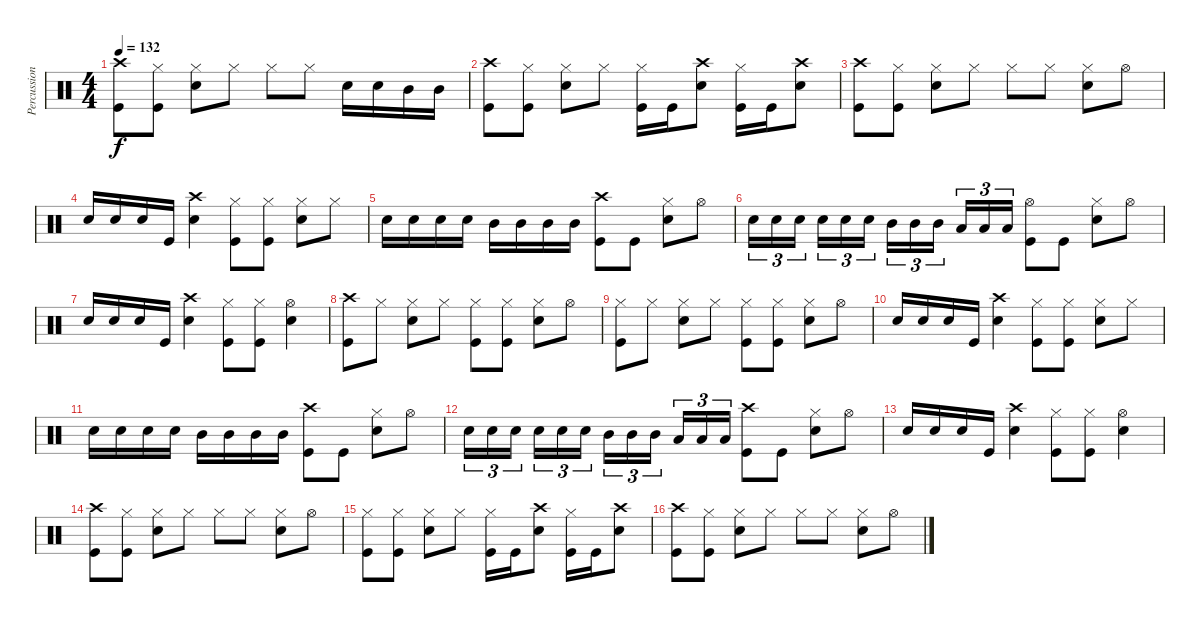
\track ("Percussion" "Percussion") {instrument percussion}
\staff {score}
\articulation defaults
\ts (4 4)
\tempo 132
\clef neutral
\ks c
("Crash high (hit)" "Kick (hit)").8{dy f} ("Hi-Hat (closed)" "Kick (hit)").8 ("Hi-Hat (closed)" "Electric Snare (hit)").8 "Hi-Hat (closed)".8 "Hi-Hat (closed)".8 "Hi-Hat (closed)".8 "Electric Snare (hit)".16 "Electric Snare (hit)".16 "Mid Tom (hit)".16 "Mid Tom (hit)".16 |
("Crash high (hit)" "Kick (hit)").8 ("Hi-Hat (closed)" "Kick (hit)").8 ("Hi-Hat (closed)" "Electric Snare (hit)").8 "Hi-Hat (closed)".8 ("Hi-Hat (closed)" "Kick (hit)").16 "Kick (hit)".16 ("Crash high (hit)" "Electric Snare (hit)").8 ("Hi-Hat (closed)" "Kick (hit)").16 "Kick (hit)".16 ("Crash high (hit)" "Electric Snare (hit)").8 |
("Crash high (hit)" "Kick (hit)").8 ("Hi-Hat (closed)" "Kick (hit)").8 ("Hi-Hat (closed)" "Electric Snare (hit)").8 "Hi-Hat (closed)".8 "Hi-Hat (closed)".8 "Hi-Hat (closed)".8 ("Hi-Hat (closed)" "Electric Snare (hit)").8 "Hi-Hat (open)".8 |
"Electric Snare (hit)".16 "Electric Snare (hit)".16 "Electric Snare (hit)".16 "Kick (hit)".16 ("Crash high (hit)" "Electric Snare (hit)").4 ("Hi-Hat (closed)" "Kick (hit)").8 ("Hi-Hat (closed)" "Kick (hit)").8 ("Hi-Hat (closed)" "Electric Snare (hit)").8 "Hi-Hat (closed)".8 |
"Electric Snare (hit)".16 "Electric Snare (hit)".16 "Electric Snare (hit)".16 "Electric Snare (hit)".16 "Mid Tom (hit)".16 "Mid Tom (hit)".16 "Mid Tom (hit)".16 "Mid Tom (hit)".16 ("Crash high (hit)" "Kick (hit)").8 "Kick (hit)".8 ("Hi-Hat (closed)" "Electric Snare (hit)").8 "Hi-Hat (open)".8 |
"Electric Snare (hit)".16{tu (3 2)} "Electric Snare (hit)".16{tu (3 2)} "Electric Snare (hit)".16{tu (3 2)} "Electric Snare (hit)".16{tu (3 2)} "Electric Snare (hit)".16{tu (3 2)} "Electric Snare (hit)".16{tu (3 2)} "Mid Tom (hit)".16{tu (3 2)} "Mid Tom (hit)".16{tu (3 2)} "Mid Tom (hit)".16{tu (3 2)} "Low Tom (hit)".16{tu (3 2)} "Low Tom (hit)".16{tu (3 2)} "Low Tom (hit)".16{tu (3 2)} ("Hi-Hat (open)" "Kick (hit)").8 "Kick (hit)".8 ("Hi-Hat (closed)" "Electric Snare (hit)").8 "Hi-Hat (open)".8 |
"Electric Snare (hit)".16 "Electric Snare (hit)".16 "Electric Snare (hit)".16 "Kick (hit)".16 ("Crash high (hit)" "Electric Snare (hit)").4 ("Hi-Hat (closed)" "Kick (hit)").8 ("Hi-Hat (closed)" "Kick (hit)").8 ("Hi-Hat (open)" "Electric Snare (hit)").4 |
("Crash high (hit)" "Kick (hit)").8 "Hi-Hat (closed)".8 ("Hi-Hat (closed)" "Electric Snare (hit)").8 "Hi-Hat (closed)".8 ("Hi-Hat (closed)" "Kick (hit)").8 ("Hi-Hat (closed)" "Kick (hit)").8 ("Hi-Hat (closed)" "Electric Snare (hit)").8 "Hi-Hat (open)".8 |
("Hi-Hat (closed)" "Kick (hit)").8 "Hi-Hat (closed)".8 ("Hi-Hat (closed)" "Electric Snare (hit)").8 "Hi-Hat (closed)".8 ("Hi-Hat (closed)" "Kick (hit)").8 ("Hi-Hat (closed)" "Kick (hit)").8 ("Hi-Hat (closed)" "Electric Snare (hit)").8 "Hi-Hat (open)".8 |
"Electric Snare (hit)".16 "Electric Snare (hit)".16 "Electric Snare (hit)".16 "Kick (hit)".16 ("Crash high (hit)" "Electric Snare (hit)").4 ("Hi-Hat (closed)" "Kick (hit)").8 ("Hi-Hat (closed)" "Kick (hit)").8 ("Hi-Hat (closed)" "Electric Snare (hit)").8 "Hi-Hat (closed)".8 |
"Electric Snare (hit)".16 "Electric Snare (hit)".16 "Electric Snare (hit)".16 "Electric Snare (hit)".16 "Mid Tom (hit)".16 "Mid Tom (hit)".16 "Mid Tom (hit)".16 "Mid Tom (hit)".16 ("Crash high (hit)" "Kick (hit)").8 "Kick (hit)".8 ("Hi-Hat (closed)" "Electric Snare (hit)").8 "Hi-Hat (open)".8 |
"Electric Snare (hit)".16{tu (3 2)} "Electric Snare (hit)".16{tu (3 2)} "Electric Snare (hit)".16{tu (3 2)} "Electric Snare (hit)".16{tu (3 2)} "Electric Snare (hit)".16{tu (3 2)} "Electric Snare (hit)".16{tu (3 2)} "Mid Tom (hit)".16{tu (3 2)} "Mid Tom (hit)".16{tu (3 2)} "Mid Tom (hit)".16{tu (3 2)} "Low Tom (hit)".16{tu (3 2)} "Low Tom (hit)".16{tu (3 2)} "Low Tom (hit)".16{tu (3 2)} ("Crash high (hit)" "Kick (hit)").8 "Kick (hit)".8 ("Hi-Hat (closed)" "Electric Snare (hit)").8 "Hi-Hat (open)".8 |
"Electric Snare (hit)".16 "Electric Snare (hit)".16 "Electric Snare (hit)".16 "Kick (hit)".16 ("Crash high (hit)" "Electric Snare (hit)").4 ("Hi-Hat (closed)" "Kick (hit)").8 ("Hi-Hat (closed)" "Kick (hit)").8 ("Hi-Hat (open)" "Electric Snare (hit)").4 |
("Crash high (hit)" "Kick (hit)").8 ("Hi-Hat (closed)" "Kick (hit)").8 ("Hi-Hat (closed)" "Electric Snare (hit)").8 "Hi-Hat (closed)".8 "Hi-Hat (closed)".8 "Hi-Hat (closed)".8 ("Hi-Hat (closed)" "Electric Snare (hit)").8 "Hi-Hat (open)".8 |
("Hi-Hat (closed)" "Kick (hit)").8 ("Hi-Hat (closed)" "Kick (hit)").8 ("Hi-Hat (closed)" "Electric Snare (hit)").8 "Hi-Hat (closed)".8 ("Hi-Hat (closed)" "Kick (hit)").16 "Kick (hit)".16 ("Crash high (hit)" "Electric Snare (hit)").8 ("Hi-Hat (closed)" "Kick (hit)").16 "Kick (hit)".16 ("Crash high (hit)" "Electric Snare (hit)").8 |
("Crash high (hit)" "Kick (hit)").8 ("Hi-Hat (closed)" "Kick (hit)").8 ("Hi-Hat (closed)" "Electric Snare (hit)").8 "Hi-Hat (closed)".8 "Hi-Hat (closed)".8 "Hi-Hat (closed)".8 ("Hi-Hat (closed)" "Electric Snare (hit)").8 "Hi-Hat (open)".8
